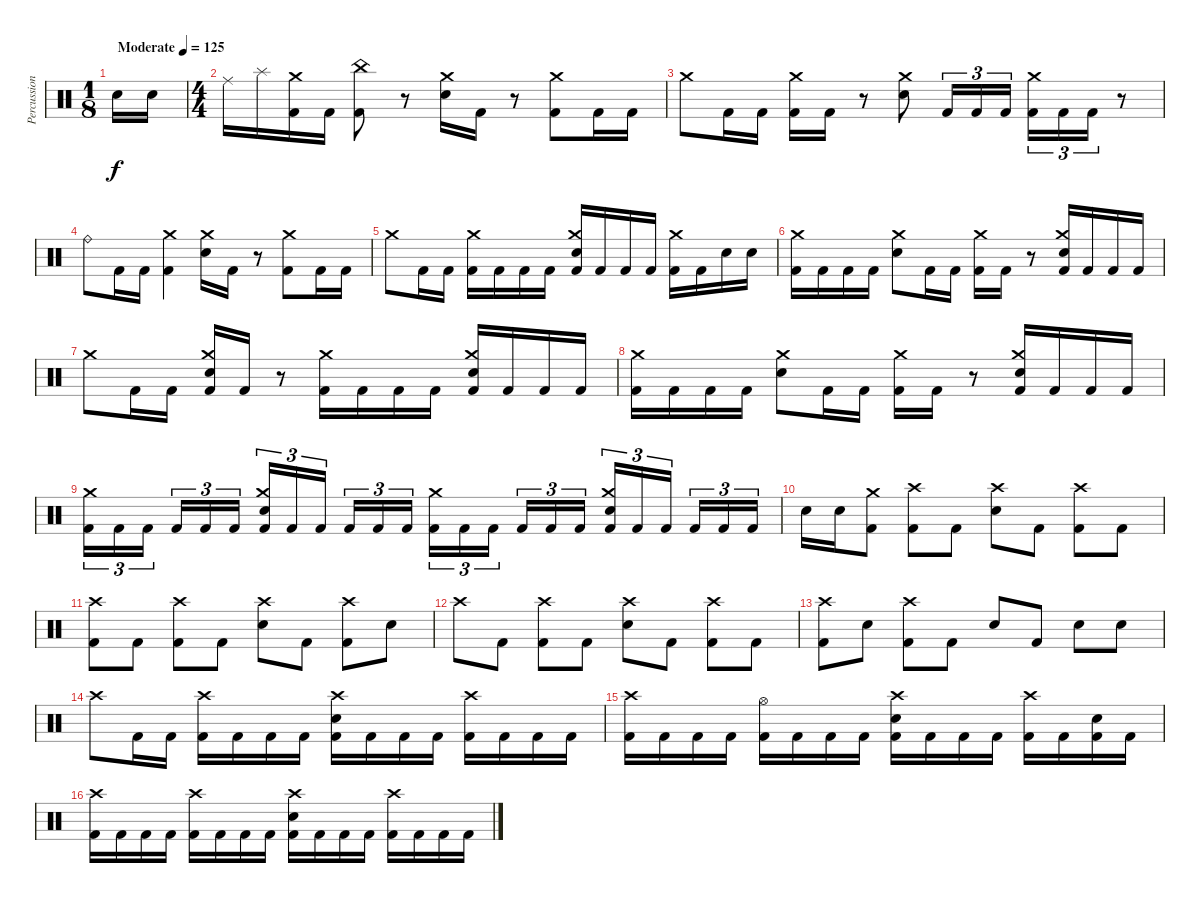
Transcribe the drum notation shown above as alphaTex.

\track ("Percussion" "Percussion") {instrument percussion}
\staff {score}
\articulation defaults
\ts (1 8)
\tempo (125 "Moderate")
\clef neutral
\ks c "Electric Snare (hit)".16{dy f} "Electric Snare (hit)".16
|
\ts (4 4)
"Ride (middle)".16 "Splash (hit)".16 ("Crash medium (hit)" "Kick (hit) 2").16 "Kick (hit) 2".16 ("China (hit)" "Kick (hit) 2").8 r.8 ("Crash medium (hit)" "Electric Snare (hit)").16 "Kick (hit) 2".16 r.8 ("Crash medium (hit)" "Kick (hit) 2").8 "Kick (hit) 2".16 "Kick (hit) 2".16 |
"Crash medium (hit)".8 "Kick (hit) 2".16 "Kick (hit) 2".16 ("Crash medium (hit)" "Kick (hit) 2").16 "Kick (hit) 2".16 r.8 ("Crash medium (hit)" "Electric Snare (hit)").8 "Kick (hit) 2".16{tu (3 2)} "Kick (hit) 2".16{tu (3 2)} "Kick (hit) 2".16{tu (3 2)} ("Crash medium (hit)" "Kick (hit) 2").16{tu (3 2)} "Kick (hit) 2".16{tu (3 2)} "Kick (hit) 2".16{tu (3 2)} r.8 |
"Ride (bell)".8 "Kick (hit) 2".16 "Kick (hit) 2".16 ("Crash medium (hit)" "Kick (hit) 2").4 ("Crash medium (hit)" "Electric Snare (hit)").16 "Kick (hit) 2".16 r.8 ("Crash medium (hit)" "Kick (hit) 2").8 "Kick (hit) 2".16 "Kick (hit) 2".16 |
"Crash medium (hit)".8 "Kick (hit) 2".16 "Kick (hit) 2".16 ("Crash medium (hit)" "Kick (hit) 2").16 "Kick (hit) 2".16 "Kick (hit) 2".16 "Kick (hit) 2".16 ("Crash medium (hit)" "Electric Snare (hit)" "Kick (hit) 2").16 "Kick (hit) 2".16 "Kick (hit) 2".16 "Kick (hit) 2".16 ("Crash medium (hit)" "Kick (hit) 2").16 "Kick (hit) 2".16 "Electric Snare (hit)".16 "Electric Snare (hit)".16 |
("Crash medium (hit)" "Kick (hit) 2").16 "Kick (hit) 2".16 "Kick (hit) 2".16 "Kick (hit) 2".16 ("Crash medium (hit)" "Electric Snare (hit)").8 "Kick (hit) 2".16 "Kick (hit) 2".16 ("Crash medium (hit)" "Kick (hit) 2").16 "Kick (hit) 2".16 r.8 ("Crash medium (hit)" "Electric Snare (hit)" "Kick (hit) 2").16 "Kick (hit) 2".16 "Kick (hit) 2".16 "Kick (hit) 2".16 |
"Crash medium (hit)".8 "Kick (hit) 2".16 "Kick (hit) 2".16 ("Crash medium (hit)" "Electric Snare (hit)" "Kick (hit) 2").16 "Kick (hit) 2".16 r.8 ("Crash medium (hit)" "Kick (hit) 2").16 "Kick (hit) 2".16 "Kick (hit) 2".16 "Kick (hit) 2".16 ("Crash medium (hit)" "Electric Snare (hit)" "Kick (hit) 2").16 "Kick (hit) 2".16 "Kick (hit) 2".16 "Kick (hit) 2".16 |
("Crash medium (hit)" "Kick (hit) 2").16 "Kick (hit) 2".16 "Kick (hit) 2".16 "Kick (hit) 2".16 ("Crash medium (hit)" "Electric Snare (hit)").8 "Kick (hit) 2".16 "Kick (hit) 2".16 ("Crash medium (hit)" "Kick (hit) 2").16 "Kick (hit) 2".16 r.8 ("Crash medium (hit)" "Electric Snare (hit)" "Kick (hit) 2").16 "Kick (hit) 2".16 "Kick (hit) 2".16 "Kick (hit) 2".16 |
("Crash medium (hit)" "Kick (hit) 2").16{tu (3 2)} "Kick (hit) 2".16{tu (3 2)} "Kick (hit) 2".16{tu (3 2) beam splitsecondary} "Kick (hit) 2".16{tu (3 2)} "Kick (hit) 2".16{tu (3 2)} "Kick (hit) 2".16{tu (3 2)} ("Crash medium (hit)" "Electric Snare (hit)" "Kick (hit) 2").16{tu (3 2)} "Kick (hit) 2".16{tu (3 2)} "Kick (hit) 2".16{tu (3 2) beam splitsecondary} "Kick (hit) 2".16{tu (3 2)} "Kick (hit) 2".16{tu (3 2)} "Kick (hit) 2".16{tu (3 2)} ("Crash medium (hit)" "Kick (hit) 2").16{tu (3 2)} "Kick (hit) 2".16{tu (3 2)} "Kick (hit) 2".16{tu (3 2) beam splitsecondary} "Kick (hit) 2".16{tu (3 2)} "Kick (hit) 2".16{tu (3 2)} "Kick (hit) 2".16{tu (3 2)} ("Crash medium (hit)" "Electric Snare (hit)" "Kick (hit) 2").16{tu (3 2)} "Kick (hit) 2".16{tu (3 2)} "Kick (hit) 2".16{tu (3 2) beam splitsecondary} "Kick (hit) 2".16{tu (3 2)} "Kick (hit) 2".16{tu (3 2)} "Kick (hit) 2".16{tu (3 2)} |
"Electric Snare (hit)".16 "Electric Snare (hit)".16 ("Crash medium (hit)" "Kick (hit) 2").8 ("Crash high (hit)" "Kick (hit) 2").8 "Kick (hit) 2".8 ("Crash high (hit)" "Electric Snare (hit)").8 "Kick (hit) 2".8 ("Crash high (hit)" "Kick (hit) 2").8 "Kick (hit) 2".8 |
("Crash high (hit)" "Kick (hit) 2").8 "Kick (hit) 2".8 ("Crash high (hit)" "Kick (hit) 2").8 "Kick (hit) 2".8 ("Crash high (hit)" "Electric Snare (hit)").8 "Kick (hit) 2".8 ("Crash high (hit)" "Kick (hit) 2").8 "Electric Snare (hit)".8 |
"Crash high (hit)".8 "Kick (hit) 2".8 ("Crash high (hit)" "Kick (hit) 2").8 "Kick (hit) 2".8 ("Crash high (hit)" "Electric Snare (hit)").8 "Kick (hit) 2".8 ("Crash high (hit)" "Kick (hit) 2").8 "Kick (hit) 2".8 |
("Crash high (hit)" "Kick (hit) 2").8 "Electric Snare (hit)".8 ("Crash high (hit)" "Kick (hit) 2").8 "Kick (hit) 2".8 "Electric Snare (hit)".8 "Kick (hit) 2".8 "Electric Snare (hit)".8 "Electric Snare (hit)".8 |
"Crash high (hit)".8 "Kick (hit) 2".16 "Kick (hit) 2".16 ("Crash high (hit)" "Kick (hit) 2").16 "Kick (hit) 2".16 "Kick (hit) 2".16 "Kick (hit) 2".16 ("Crash high (hit)" "Electric Snare (hit)" "Kick (hit) 2").16 "Kick (hit) 2".16 "Kick (hit) 2".16 "Kick (hit) 2".16 ("Crash high (hit)" "Kick (hit) 2").16 "Kick (hit) 2".16 "Kick (hit) 2".16 "Kick (hit) 2".16 |
("Crash high (hit)" "Kick (hit) 2").16 "Kick (hit) 2".16 "Kick (hit) 2".16 "Kick (hit) 2".16 ("Hi-Hat (open)" "Kick (hit) 2").16 "Kick (hit) 2".16 "Kick (hit) 2".16 "Kick (hit) 2".16 ("Crash high (hit)" "Electric Snare (hit)" "Kick (hit) 2").16 "Kick (hit) 2".16 "Kick (hit) 2".16 "Kick (hit) 2".16 ("Crash high (hit)" "Kick (hit) 2").16 "Kick (hit) 2".16 ("Electric Snare (hit)" "Kick (hit) 2").16 "Kick (hit) 2".16 |
("Crash high (hit)" "Kick (hit) 2").16 "Kick (hit) 2".16 "Kick (hit) 2".16 "Kick (hit) 2".16 ("Crash high (hit)" "Kick (hit) 2").16 "Kick (hit) 2".16 "Kick (hit) 2".16 "Kick (hit) 2".16 ("Crash high (hit)" "Electric Snare (hit)" "Kick (hit) 2").16 "Kick (hit) 2".16 "Kick (hit) 2".16 "Kick (hit) 2".16 ("Crash high (hit)" "Kick (hit) 2").16 "Kick (hit) 2".16 "Kick (hit) 2".16 "Kick (hit) 2".16
